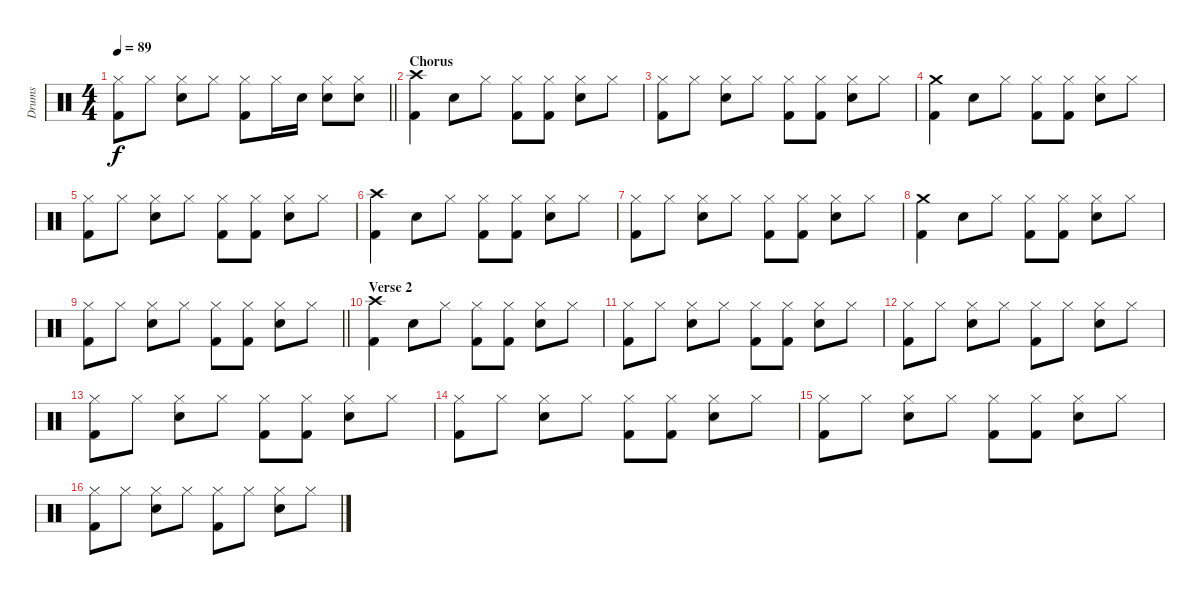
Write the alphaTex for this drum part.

\track ("Drums" "Drums") {instrument percussion}
\staff {score}
\articulation defaults
\ts (4 4)
\tempo 89
\clef neutral
\barLineRight lightlight
\ks c
("Kick (hit) 2" "Hi-Hat (closed)").8{dy f} "Hi-Hat (closed)".8 ("Snare (hit) 2" "Hi-Hat (closed)").8 "Hi-Hat (closed)".8 ("Kick (hit) 2" "Hi-Hat (closed)").8 "Hi-Hat (closed)".16 "Snare (hit) 2".16 ("Snare (hit) 2" "Hi-Hat (closed)").8 ("Snare (hit) 2" "Hi-Hat (closed)").8 |
\section ("" "Chorus")
("Kick (hit) 2" "Crash high (hit)").4 "Snare (hit) 2".8 "Hi-Hat (closed)".8 ("Kick (hit) 2" "Hi-Hat (closed)").8 ("Kick (hit) 2" "Hi-Hat (closed)").8 ("Snare (hit) 2" "Hi-Hat (closed)").8 "Hi-Hat (closed)".8 |
("Kick (hit) 2" "Hi-Hat (closed)").8 "Hi-Hat (closed)".8 ("Snare (hit) 2" "Hi-Hat (closed)").8 "Hi-Hat (closed)".8 ("Kick (hit) 2" "Hi-Hat (closed)").8 ("Kick (hit) 2" "Hi-Hat (closed)").8 ("Snare (hit) 2" "Hi-Hat (closed)").8 "Hi-Hat (closed)".8 |
("Kick (hit) 2" "Crash medium (hit)").4 "Snare (hit) 2".8 "Hi-Hat (closed)".8 ("Kick (hit) 2" "Hi-Hat (closed)").8 ("Kick (hit) 2" "Hi-Hat (closed)").8 ("Snare (hit) 2" "Hi-Hat (closed)").8 "Hi-Hat (closed)".8 |
("Kick (hit) 2" "Hi-Hat (closed)").8 "Hi-Hat (closed)".8 ("Snare (hit) 2" "Hi-Hat (closed)").8 "Hi-Hat (closed)".8 ("Kick (hit) 2" "Hi-Hat (closed)").8 ("Kick (hit) 2" "Hi-Hat (closed)").8 ("Snare (hit) 2" "Hi-Hat (closed)").8 "Hi-Hat (closed)".8 |
("Kick (hit) 2" "Crash high (hit)").4 "Snare (hit) 2".8 "Hi-Hat (closed)".8 ("Kick (hit) 2" "Hi-Hat (closed)").8 ("Kick (hit) 2" "Hi-Hat (closed)").8 ("Snare (hit) 2" "Hi-Hat (closed)").8 "Hi-Hat (closed)".8 |
("Kick (hit) 2" "Hi-Hat (closed)").8 "Hi-Hat (closed)".8 ("Snare (hit) 2" "Hi-Hat (closed)").8 "Hi-Hat (closed)".8 ("Kick (hit) 2" "Hi-Hat (closed)").8 ("Kick (hit) 2" "Hi-Hat (closed)").8 ("Snare (hit) 2" "Hi-Hat (closed)").8 "Hi-Hat (closed)".8 |
("Kick (hit) 2" "Crash medium (hit)").4 "Snare (hit) 2".8 "Hi-Hat (closed)".8 ("Kick (hit) 2" "Hi-Hat (closed)").8 ("Kick (hit) 2" "Hi-Hat (closed)").8 ("Snare (hit) 2" "Hi-Hat (closed)").8 "Hi-Hat (closed)".8 |
\barLineRight lightlight
("Kick (hit) 2" "Hi-Hat (closed)").8 "Hi-Hat (closed)".8 ("Snare (hit) 2" "Hi-Hat (closed)").8 "Hi-Hat (closed)".8 ("Kick (hit) 2" "Hi-Hat (closed)").8 ("Kick (hit) 2" "Hi-Hat (closed)").8 ("Snare (hit) 2" "Hi-Hat (closed)").8 "Hi-Hat (closed)".8 |
\section ("" "Verse 2")
("Kick (hit) 2" "Crash high (hit)").4 "Snare (hit) 2".8 "Hi-Hat (closed)".8 ("Kick (hit) 2" "Hi-Hat (closed)").8 ("Kick (hit) 2" "Hi-Hat (closed)").8 ("Snare (hit) 2" "Hi-Hat (closed)").8 "Hi-Hat (closed)".8 |
("Kick (hit) 2" "Hi-Hat (closed)").8 "Hi-Hat (closed)".8 ("Snare (hit) 2" "Hi-Hat (closed)").8 "Hi-Hat (closed)".8 ("Kick (hit) 2" "Hi-Hat (closed)").8 ("Kick (hit) 2" "Hi-Hat (closed)").8 ("Snare (hit) 2" "Hi-Hat (closed)").8 "Hi-Hat (closed)".8 |
("Kick (hit) 2" "Hi-Hat (closed)").8 "Hi-Hat (closed)".8 ("Snare (hit) 2" "Hi-Hat (closed)").8 "Hi-Hat (closed)".8 ("Kick (hit) 2" "Hi-Hat (closed)").8 "Hi-Hat (closed)".8 ("Snare (hit) 2" "Hi-Hat (closed)").8 "Hi-Hat (closed)".8 |
("Kick (hit) 2" "Hi-Hat (closed)").8 "Hi-Hat (closed)".8 ("Snare (hit) 2" "Hi-Hat (closed)").8 "Hi-Hat (closed)".8 ("Kick (hit) 2" "Hi-Hat (closed)").8 ("Kick (hit) 2" "Hi-Hat (closed)").8 ("Snare (hit) 2" "Hi-Hat (closed)").8 "Hi-Hat (closed)".8 |
("Kick (hit) 2" "Hi-Hat (closed)").8 "Hi-Hat (closed)".8 ("Snare (hit) 2" "Hi-Hat (closed)").8 "Hi-Hat (closed)".8 ("Kick (hit) 2" "Hi-Hat (closed)").8 ("Kick (hit) 2" "Hi-Hat (closed)").8 ("Snare (hit) 2" "Hi-Hat (closed)").8 "Hi-Hat (closed)".8 |
("Kick (hit) 2" "Hi-Hat (closed)").8 "Hi-Hat (closed)".8 ("Snare (hit) 2" "Hi-Hat (closed)").8 "Hi-Hat (closed)".8 ("Kick (hit) 2" "Hi-Hat (closed)").8 ("Kick (hit) 2" "Hi-Hat (closed)").8 ("Snare (hit) 2" "Hi-Hat (closed)").8 "Hi-Hat (closed)".8 |
("Kick (hit) 2" "Hi-Hat (closed)").8 "Hi-Hat (closed)".8 ("Snare (hit) 2" "Hi-Hat (closed)").8 "Hi-Hat (closed)".8 ("Kick (hit) 2" "Hi-Hat (closed)").8 "Hi-Hat (closed)".8 ("Snare (hit) 2" "Hi-Hat (closed)").8 "Hi-Hat (closed)".8
